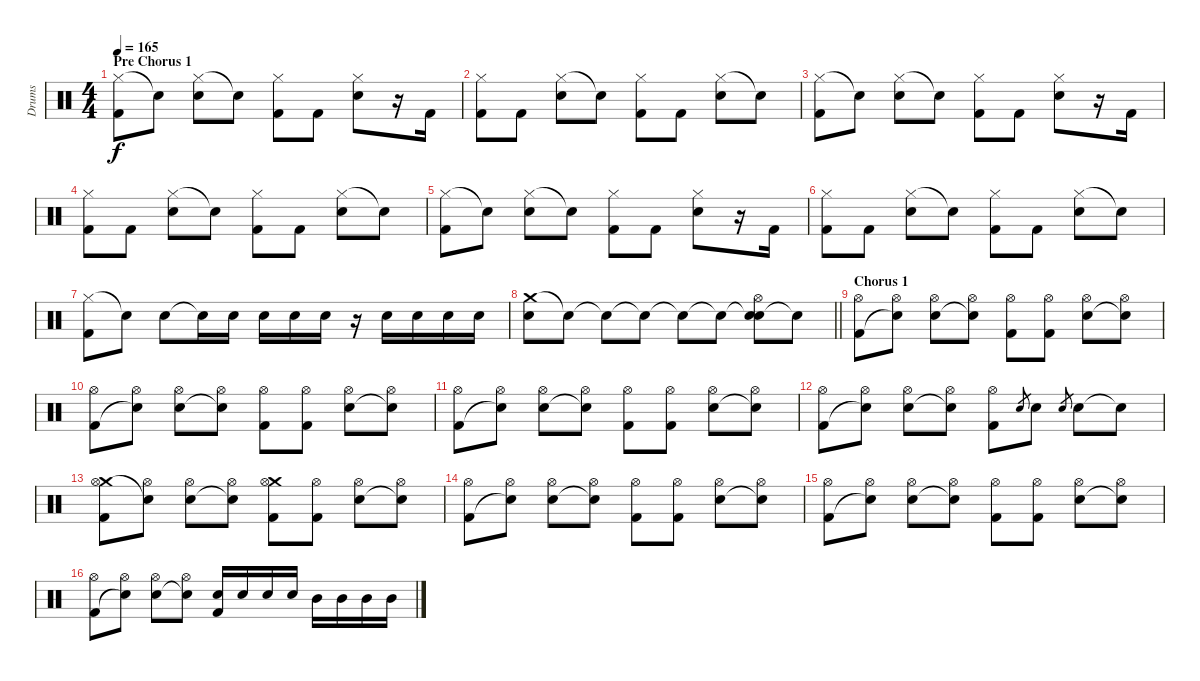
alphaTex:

\track ("Drums" "Drums") {instrument percussion}
\staff {score}
\articulation defaults
\ts (4 4)
\section ("" "Pre Chorus 1")
\tempo 165
\clef neutral
\ks c
("Hi-Hat (closed)" "Kick (hit) 2").8{dy f} "Snare (hit)"{t}.8 ("Hi-Hat (closed)" "Electric Snare (hit)").8 "Snare (hit)"{t}.8 ("Hi-Hat (closed)" "Kick (hit) 2").8 "Kick (hit) 2".8 ("Hi-Hat (closed)" "Electric Snare (hit)").8 r.16 "Kick (hit) 2".16 |
("Hi-Hat (closed)" "Kick (hit) 2").8 "Kick (hit) 2".8 ("Hi-Hat (closed)" "Electric Snare (hit)").8 "Snare (hit)"{t}.8 ("Hi-Hat (closed)" "Kick (hit) 2").8 "Kick (hit) 2".8 ("Hi-Hat (closed)" "Electric Snare (hit)").8 "Snare (hit)"{t}.8 |
("Hi-Hat (closed)" "Kick (hit) 2").8 "Snare (hit)"{t}.8 ("Hi-Hat (closed)" "Electric Snare (hit)").8 "Snare (hit)"{t}.8 ("Hi-Hat (closed)" "Kick (hit) 2").8 "Kick (hit) 2".8 ("Hi-Hat (closed)" "Electric Snare (hit)").8 r.16 "Kick (hit) 2".16 |
("Hi-Hat (closed)" "Kick (hit) 2").8 "Kick (hit) 2".8 ("Hi-Hat (closed)" "Electric Snare (hit)").8 "Snare (hit)"{t}.8 ("Hi-Hat (closed)" "Kick (hit) 2").8 "Kick (hit) 2".8 ("Hi-Hat (closed)" "Electric Snare (hit)").8 "Snare (hit)"{t}.8 |
("Hi-Hat (closed)" "Kick (hit) 2").8 "Snare (hit)"{t}.8 ("Hi-Hat (closed)" "Electric Snare (hit)").8 "Snare (hit)"{t}.8 ("Hi-Hat (closed)" "Kick (hit) 2").8 "Kick (hit) 2".8 ("Hi-Hat (closed)" "Electric Snare (hit)").8 r.16 "Kick (hit) 2".16 |
("Hi-Hat (closed)" "Kick (hit) 2").8 "Kick (hit) 2".8 ("Hi-Hat (closed)" "Electric Snare (hit)").8 "Snare (hit)"{t}.8 ("Hi-Hat (closed)" "Kick (hit) 2").8 "Kick (hit) 2".8 ("Hi-Hat (closed)" "Electric Snare (hit)").8 "Snare (hit)"{t}.8 |
("Hi-Hat (closed)" "Kick (hit) 2").8 "Snare (hit)"{t}.8 "Electric Snare (hit)".8 "Snare (hit)"{t}.16 "Electric Snare (hit)".16 "Electric Snare (hit)".16 "Electric Snare (hit)".16 "Electric Snare (hit)".16 r.16 "Electric Snare (hit)".16 "Electric Snare (hit)".16 "Electric Snare (hit)".16 "Electric Snare (hit)".16 |
\barLineRight lightlight
("Crash medium (hit)" "Electric Snare (hit)").8 "Snare (hit)"{t}.8 "Snare (hit)"{t}.8 "Snare (hit)"{t}.8 "Snare (hit)"{t}.8 "Snare (hit)"{t}.8 ("Snare (hit)"{t} "Hi-Hat (open)" "Electric Snare (hit)").8 "Snare (hit)"{t}.8 |
\section ("" "Chorus 1")
("Hi-Hat (open)" "Kick (hit) 2").8 ("Hi-Hat (open)" "Snare (hit)"{t}).8 ("Hi-Hat (open)" "Electric Snare (hit)").8 ("Hi-Hat (open)" "Snare (hit)"{t}).8 ("Hi-Hat (open)" "Kick (hit) 2").8 ("Hi-Hat (open)" "Kick (hit) 2").8 ("Hi-Hat (open)" "Electric Snare (hit)").8 ("Hi-Hat (open)" "Snare (hit)"{t}).8 |
("Hi-Hat (open)" "Kick (hit) 2").8 ("Hi-Hat (open)" "Snare (hit)"{t}).8 ("Hi-Hat (open)" "Electric Snare (hit)").8 ("Hi-Hat (open)" "Snare (hit)"{t}).8 ("Hi-Hat (open)" "Kick (hit) 2").8 ("Hi-Hat (open)" "Kick (hit) 2").8 ("Hi-Hat (open)" "Electric Snare (hit)").8 ("Hi-Hat (open)" "Snare (hit)"{t}).8 |
("Hi-Hat (open)" "Kick (hit) 2").8 ("Hi-Hat (open)" "Snare (hit)"{t}).8 ("Hi-Hat (open)" "Electric Snare (hit)").8 ("Hi-Hat (open)" "Snare (hit)"{t}).8 ("Hi-Hat (open)" "Kick (hit) 2").8 ("Hi-Hat (open)" "Kick (hit) 2").8 ("Hi-Hat (open)" "Electric Snare (hit)").8 ("Hi-Hat (open)" "Snare (hit)"{t}).8 |
("Hi-Hat (open)" "Kick (hit) 2").8 ("Hi-Hat (open)" "Snare (hit)"{t}).8 ("Hi-Hat (open)" "Electric Snare (hit)").8 ("Hi-Hat (open)" "Snare (hit)"{t}).8 ("Hi-Hat (open)" "Kick (hit) 2").8 "Electric Snare (hit)".8{gr} "Electric Snare (hit)".8 "Electric Snare (hit)".8{gr} "Electric Snare (hit)".8 "Snare (hit)"{t}.8 |
("Crash medium (hit)" "Hi-Hat (open)" "Kick (hit) 2").8 ("Hi-Hat (open)" "Snare (hit)"{t}).8 ("Hi-Hat (open)" "Electric Snare (hit)").8 ("Hi-Hat (open)" "Snare (hit)"{t}).8 ("Crash medium (hit)" "Hi-Hat (open)" "Kick (hit) 2").8 ("Hi-Hat (open)" "Kick (hit) 2").8 ("Hi-Hat (open)" "Electric Snare (hit)").8 ("Hi-Hat (open)" "Snare (hit)"{t}).8 |
("Hi-Hat (open)" "Kick (hit) 2").8 ("Hi-Hat (open)" "Snare (hit)"{t}).8 ("Hi-Hat (open)" "Electric Snare (hit)").8 ("Hi-Hat (open)" "Snare (hit)"{t}).8 ("Hi-Hat (open)" "Kick (hit) 2").8 ("Hi-Hat (open)" "Kick (hit) 2").8 ("Hi-Hat (open)" "Electric Snare (hit)").8 ("Hi-Hat (open)" "Snare (hit)"{t}).8 |
("Hi-Hat (open)" "Kick (hit) 2").8 ("Hi-Hat (open)" "Snare (hit)"{t}).8 ("Hi-Hat (open)" "Electric Snare (hit)").8 ("Hi-Hat (open)" "Snare (hit)"{t}).8 ("Hi-Hat (open)" "Kick (hit) 2").8 ("Hi-Hat (open)" "Kick (hit) 2").8 ("Hi-Hat (open)" "Electric Snare (hit)").8 ("Hi-Hat (open)" "Snare (hit)"{t}).8 |
("Hi-Hat (open)" "Kick (hit) 2").8 ("Hi-Hat (open)" "Snare (hit)"{t}).8 ("Hi-Hat (open)" "Electric Snare (hit)").8 ("Hi-Hat (open)" "Snare (hit)"{t}).8 ("Electric Snare (hit)" "Kick (hit) 2").16 "Electric Snare (hit)".16 "Electric Snare (hit)".16 "Electric Snare (hit)".16 "Mid Tom (hit)".16 "Mid Tom (hit)".16 "Mid Tom (hit)".16 "Mid Tom (hit)".16
